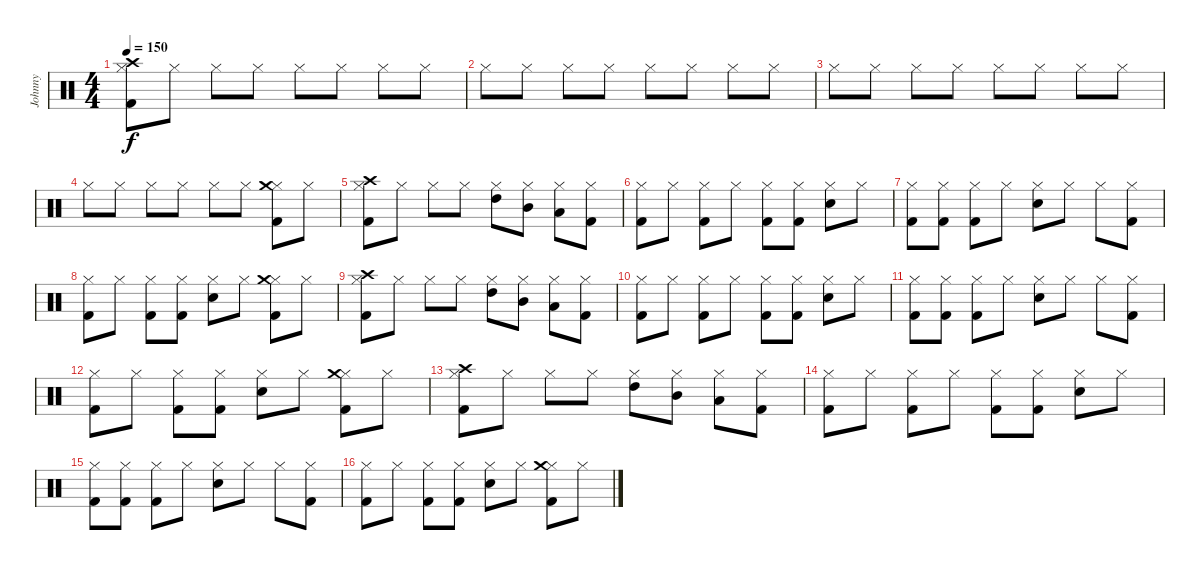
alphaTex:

\track ("Johnny" "Johnny") {instrument percussion}
\staff {score}
\articulation defaults
\ts (4 4)
\tempo 150
\clef neutral
\ks c
("Hi-Hat (closed)" "Kick (hit) 2" "Crash high (hit)").8{dy f} "Hi-Hat (closed)".8 "Hi-Hat (closed)".8 "Hi-Hat (closed)".8 "Hi-Hat (closed)".8 "Hi-Hat (closed)".8 "Hi-Hat (closed)".8 "Hi-Hat (closed)".8 |
"Hi-Hat (closed)".8{volume 11} "Hi-Hat (closed)".8 "Hi-Hat (closed)".8 "Hi-Hat (closed)".8 "Hi-Hat (closed)".8 "Hi-Hat (closed)".8 "Hi-Hat (closed)".8 "Hi-Hat (closed)".8 |
"Hi-Hat (closed)".8 "Hi-Hat (closed)".8 "Hi-Hat (closed)".8 "Hi-Hat (closed)".8 "Hi-Hat (closed)".8 "Hi-Hat (closed)".8 "Hi-Hat (closed)".8 "Hi-Hat (closed)".8 |
"Hi-Hat (closed)".8 "Hi-Hat (closed)".8 "Hi-Hat (closed)".8 "Hi-Hat (closed)".8 "Hi-Hat (closed)".8 "Hi-Hat (closed)".8 ("Hi-Hat (closed)" "Kick (hit) 2" "Crash medium (hit)").8 "Hi-Hat (closed)".8 |
("Hi-Hat (closed)" "Kick (hit) 2" "Crash high (hit)").8 "Hi-Hat (closed)".8 "Hi-Hat (closed)".8 "Hi-Hat (closed)".8 ("Hi-Hat (closed)" "High Tom (hit)").8 ("Hi-Hat (closed)" "Mid Tom (hit)").8 ("Hi-Hat (closed)" "Low Tom (hit)").8 ("Hi-Hat (closed)" "Kick (hit) 2").8 |
("Hi-Hat (closed)" "Kick (hit) 2").8{volume 11} "Hi-Hat (closed)".8 ("Hi-Hat (closed)" "Kick (hit) 2").8 "Hi-Hat (closed)".8 ("Hi-Hat (closed)" "Kick (hit) 2").8 ("Hi-Hat (closed)" "Kick (hit) 2").8 ("Hi-Hat (closed)" "Electric Snare (hit)").8 "Hi-Hat (closed)".8 |
("Hi-Hat (closed)" "Kick (hit) 2").8 ("Hi-Hat (closed)" "Kick (hit) 2").8 ("Hi-Hat (closed)" "Kick (hit) 2").8 "Hi-Hat (closed)".8 ("Hi-Hat (closed)" "Electric Snare (hit)").8 "Hi-Hat (closed)".8 "Hi-Hat (closed)".8 ("Hi-Hat (closed)" "Kick (hit) 2").8 |
("Hi-Hat (closed)" "Kick (hit) 2").8 "Hi-Hat (closed)".8 ("Hi-Hat (closed)" "Kick (hit) 2").8 ("Hi-Hat (closed)" "Kick (hit) 2").8 ("Hi-Hat (closed)" "Electric Snare (hit)").8 "Hi-Hat (closed)".8 ("Hi-Hat (closed)" "Kick (hit) 2" "Crash medium (hit)").8 "Hi-Hat (closed)".8 |
("Hi-Hat (closed)" "Kick (hit) 2" "Crash high (hit)").8 "Hi-Hat (closed)".8 "Hi-Hat (closed)".8 "Hi-Hat (closed)".8 ("Hi-Hat (closed)" "High Tom (hit)").8 ("Hi-Hat (closed)" "Mid Tom (hit)").8 ("Hi-Hat (closed)" "Low Tom (hit)").8 ("Hi-Hat (closed)" "Kick (hit) 2").8 |
("Hi-Hat (closed)" "Kick (hit) 2").8{volume 11} "Hi-Hat (closed)".8 ("Hi-Hat (closed)" "Kick (hit) 2").8 "Hi-Hat (closed)".8 ("Hi-Hat (closed)" "Kick (hit) 2").8 ("Hi-Hat (closed)" "Kick (hit) 2").8 ("Hi-Hat (closed)" "Electric Snare (hit)").8 "Hi-Hat (closed)".8 |
("Hi-Hat (closed)" "Kick (hit) 2").8 ("Hi-Hat (closed)" "Kick (hit) 2").8 ("Hi-Hat (closed)" "Kick (hit) 2").8 "Hi-Hat (closed)".8 ("Hi-Hat (closed)" "Electric Snare (hit)").8 "Hi-Hat (closed)".8 "Hi-Hat (closed)".8 ("Hi-Hat (closed)" "Kick (hit) 2").8 |
("Hi-Hat (closed)" "Kick (hit) 2").8 "Hi-Hat (closed)".8 ("Hi-Hat (closed)" "Kick (hit) 2").8 ("Hi-Hat (closed)" "Kick (hit) 2").8 ("Hi-Hat (closed)" "Electric Snare (hit)").8 "Hi-Hat (closed)".8 ("Hi-Hat (closed)" "Kick (hit) 2" "Crash medium (hit)").8 "Hi-Hat (closed)".8 |
("Hi-Hat (closed)" "Kick (hit) 2" "Crash high (hit)").8 "Hi-Hat (closed)".8 "Hi-Hat (closed)".8 "Hi-Hat (closed)".8 ("Hi-Hat (closed)" "High Tom (hit)").8 ("Hi-Hat (closed)" "Mid Tom (hit)").8 ("Hi-Hat (closed)" "Low Tom (hit)").8 ("Hi-Hat (closed)" "Kick (hit) 2").8 |
("Hi-Hat (closed)" "Kick (hit) 2").8{volume 11} "Hi-Hat (closed)".8 ("Hi-Hat (closed)" "Kick (hit) 2").8 "Hi-Hat (closed)".8 ("Hi-Hat (closed)" "Kick (hit) 2").8 ("Hi-Hat (closed)" "Kick (hit) 2").8 ("Hi-Hat (closed)" "Electric Snare (hit)").8 "Hi-Hat (closed)".8 |
("Hi-Hat (closed)" "Kick (hit) 2").8 ("Hi-Hat (closed)" "Kick (hit) 2").8 ("Hi-Hat (closed)" "Kick (hit) 2").8 "Hi-Hat (closed)".8 ("Hi-Hat (closed)" "Electric Snare (hit)").8 "Hi-Hat (closed)".8 "Hi-Hat (closed)".8 ("Hi-Hat (closed)" "Kick (hit) 2").8 |
("Hi-Hat (closed)" "Kick (hit) 2").8 "Hi-Hat (closed)".8 ("Hi-Hat (closed)" "Kick (hit) 2").8 ("Hi-Hat (closed)" "Kick (hit) 2").8 ("Hi-Hat (closed)" "Electric Snare (hit)").8 "Hi-Hat (closed)".8 ("Hi-Hat (closed)" "Kick (hit) 2" "Crash medium (hit)").8 "Hi-Hat (closed)".8
